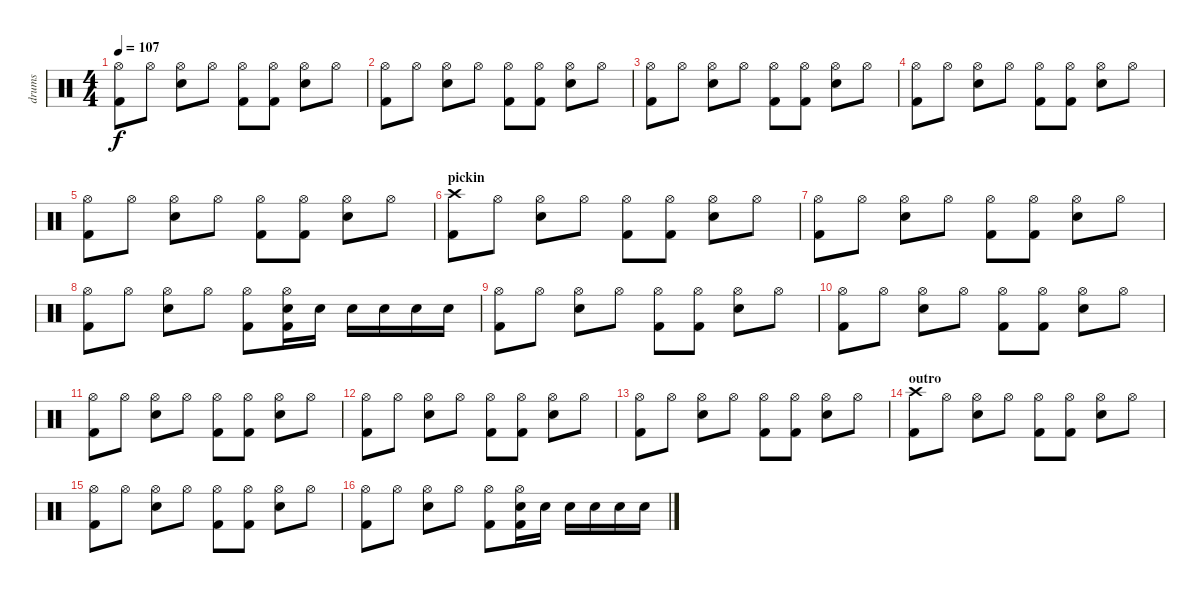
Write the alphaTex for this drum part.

\track ("drums" "drums") {instrument percussion}
\staff {score}
\articulation defaults
\ts (4 4)
\tempo 107
\clef neutral
\ks c
("Hi-Hat (open)" "Kick (hit) 2").8{dy f} "Hi-Hat (open)".8 ("Hi-Hat (open)" "Electric Snare (hit)").8 "Hi-Hat (open)".8 ("Hi-Hat (open)" "Kick (hit) 2").8 ("Hi-Hat (open)" "Kick (hit) 2").8 ("Hi-Hat (open)" "Electric Snare (hit)").8 "Hi-Hat (open)".8 |
("Hi-Hat (open)" "Kick (hit) 2").8 "Hi-Hat (open)".8 ("Hi-Hat (open)" "Electric Snare (hit)").8 "Hi-Hat (open)".8 ("Hi-Hat (open)" "Kick (hit) 2").8 ("Hi-Hat (open)" "Kick (hit) 2").8 ("Hi-Hat (open)" "Electric Snare (hit)").8 "Hi-Hat (open)".8 |
("Hi-Hat (open)" "Kick (hit) 2").8 "Hi-Hat (open)".8 ("Hi-Hat (open)" "Electric Snare (hit)").8 "Hi-Hat (open)".8 ("Hi-Hat (open)" "Kick (hit) 2").8 ("Hi-Hat (open)" "Kick (hit) 2").8 ("Hi-Hat (open)" "Electric Snare (hit)").8 "Hi-Hat (open)".8 |
("Hi-Hat (open)" "Kick (hit) 2").8 "Hi-Hat (open)".8 ("Hi-Hat (open)" "Electric Snare (hit)").8 "Hi-Hat (open)".8 ("Hi-Hat (open)" "Kick (hit) 2").8 ("Hi-Hat (open)" "Kick (hit) 2").8 ("Hi-Hat (open)" "Electric Snare (hit)").8 "Hi-Hat (open)".8 |
("Hi-Hat (open)" "Kick (hit) 2").8 "Hi-Hat (open)".8 ("Hi-Hat (open)" "Electric Snare (hit)").8 "Hi-Hat (open)".8 ("Hi-Hat (open)" "Kick (hit) 2").8 ("Hi-Hat (open)" "Kick (hit) 2").8 ("Hi-Hat (open)" "Electric Snare (hit)").8 "Hi-Hat (open)".8 |
\section ("" "pickin")
("Crash high (hit)" "Kick (hit) 2").8 "Hi-Hat (open)".8 ("Hi-Hat (open)" "Electric Snare (hit)").8 "Hi-Hat (open)".8 ("Hi-Hat (open)" "Kick (hit) 2").8 ("Hi-Hat (open)" "Kick (hit) 2").8 ("Hi-Hat (open)" "Electric Snare (hit)").8 "Hi-Hat (open)".8 |
("Hi-Hat (open)" "Kick (hit) 2").8 "Hi-Hat (open)".8 ("Hi-Hat (open)" "Electric Snare (hit)").8 "Hi-Hat (open)".8 ("Hi-Hat (open)" "Kick (hit) 2").8 ("Hi-Hat (open)" "Kick (hit) 2").8 ("Hi-Hat (open)" "Electric Snare (hit)").8 "Hi-Hat (open)".8 |
("Hi-Hat (open)" "Kick (hit) 2").8 "Hi-Hat (open)".8 ("Hi-Hat (open)" "Electric Snare (hit)").8 "Hi-Hat (open)".8 ("Hi-Hat (open)" "Kick (hit) 2").8 ("Hi-Hat (open)" "Electric Snare (hit)" "Kick (hit) 2").16 "Electric Snare (hit)".16 "Electric Snare (hit)".16 "Electric Snare (hit)".16 "Electric Snare (hit)".16 "Electric Snare (hit)".16 |
("Hi-Hat (open)" "Kick (hit) 2").8 "Hi-Hat (open)".8 ("Hi-Hat (open)" "Electric Snare (hit)").8 "Hi-Hat (open)".8 ("Hi-Hat (open)" "Kick (hit) 2").8 ("Hi-Hat (open)" "Kick (hit) 2").8 ("Hi-Hat (open)" "Electric Snare (hit)").8 "Hi-Hat (open)".8 |
("Hi-Hat (open)" "Kick (hit) 2").8 "Hi-Hat (open)".8 ("Hi-Hat (open)" "Electric Snare (hit)").8 "Hi-Hat (open)".8 ("Hi-Hat (open)" "Kick (hit) 2").8 ("Hi-Hat (open)" "Kick (hit) 2").8 ("Hi-Hat (open)" "Electric Snare (hit)").8 "Hi-Hat (open)".8 |
("Hi-Hat (open)" "Kick (hit) 2").8 "Hi-Hat (open)".8 ("Hi-Hat (open)" "Electric Snare (hit)").8 "Hi-Hat (open)".8 ("Hi-Hat (open)" "Kick (hit) 2").8 ("Hi-Hat (open)" "Kick (hit) 2").8 ("Hi-Hat (open)" "Electric Snare (hit)").8 "Hi-Hat (open)".8 |
("Hi-Hat (open)" "Kick (hit) 2").8 "Hi-Hat (open)".8 ("Hi-Hat (open)" "Electric Snare (hit)").8 "Hi-Hat (open)".8 ("Hi-Hat (open)" "Kick (hit) 2").8 ("Hi-Hat (open)" "Kick (hit) 2").8 ("Hi-Hat (open)" "Electric Snare (hit)").8 "Hi-Hat (open)".8 |
("Hi-Hat (open)" "Kick (hit) 2").8 "Hi-Hat (open)".8 ("Hi-Hat (open)" "Electric Snare (hit)").8 "Hi-Hat (open)".8 ("Hi-Hat (open)" "Kick (hit) 2").8 ("Hi-Hat (open)" "Kick (hit) 2").8 ("Hi-Hat (open)" "Electric Snare (hit)").8 "Hi-Hat (open)".8 |
\section ("" "outro")
("Crash high (hit)" "Kick (hit) 2").8 "Hi-Hat (open)".8 ("Hi-Hat (open)" "Electric Snare (hit)").8 "Hi-Hat (open)".8 ("Hi-Hat (open)" "Kick (hit) 2").8 ("Hi-Hat (open)" "Kick (hit) 2").8 ("Hi-Hat (open)" "Electric Snare (hit)").8 "Hi-Hat (open)".8 |
("Hi-Hat (open)" "Kick (hit) 2").8 "Hi-Hat (open)".8 ("Hi-Hat (open)" "Electric Snare (hit)").8 "Hi-Hat (open)".8 ("Hi-Hat (open)" "Kick (hit) 2").8 ("Hi-Hat (open)" "Kick (hit) 2").8 ("Hi-Hat (open)" "Electric Snare (hit)").8 "Hi-Hat (open)".8 |
("Hi-Hat (open)" "Kick (hit) 2").8 "Hi-Hat (open)".8 ("Hi-Hat (open)" "Electric Snare (hit)").8 "Hi-Hat (open)".8 ("Hi-Hat (open)" "Kick (hit) 2").8 ("Hi-Hat (open)" "Electric Snare (hit)" "Kick (hit) 2").16 "Electric Snare (hit)".16 "Electric Snare (hit)".16 "Electric Snare (hit)".16 "Electric Snare (hit)".16 "Electric Snare (hit)".16
